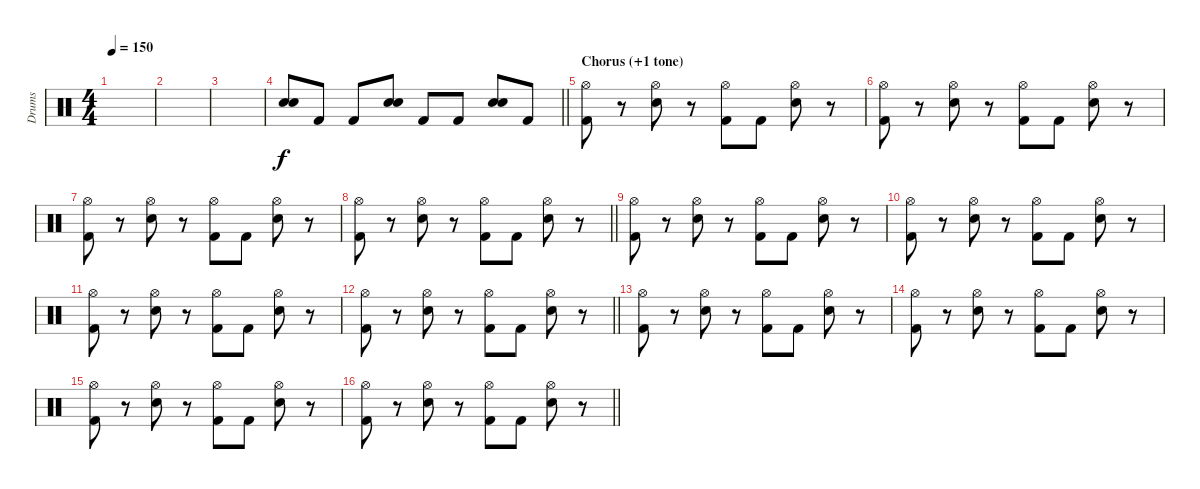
\track ("Drums" "Drums") {instrument percussion}
\staff {score}
\articulation defaults
\ts (4 4)
\tempo 150
\clef neutral
\ks c
|
|
|
\barLineRight lightlight
("Electric Snare (hit)" "Snare (hit) 2").8{dy f} "Kick (hit) 2".8 "Kick (hit) 2".8 ("Electric Snare (hit)" "Snare (hit) 2").8 "Kick (hit) 2".8 "Kick (hit) 2".8 ("Electric Snare (hit)" "Snare (hit) 2").8 "Kick (hit) 2".8 |
\section ("" "Chorus (+1 tone)")
("Hi-Hat (open)" "Kick (hit) 2").8 r.8 ("Hi-Hat (open)" "Snare (hit) 2").8 r.8 ("Hi-Hat (open)" "Kick (hit) 2").8 "Kick (hit) 2".8 ("Hi-Hat (open)" "Snare (hit) 2").8 r.8 |
("Hi-Hat (open)" "Kick (hit) 2").8 r.8 ("Hi-Hat (open)" "Snare (hit) 2").8 r.8 ("Hi-Hat (open)" "Kick (hit) 2").8 "Kick (hit) 2".8 ("Hi-Hat (open)" "Snare (hit) 2").8 r.8 |
("Hi-Hat (open)" "Kick (hit) 2").8 r.8 ("Hi-Hat (open)" "Snare (hit) 2").8 r.8 ("Hi-Hat (open)" "Kick (hit) 2").8 "Kick (hit) 2".8 ("Hi-Hat (open)" "Snare (hit) 2").8 r.8 |
\barLineRight lightlight
("Hi-Hat (open)" "Kick (hit) 2").8 r.8 ("Hi-Hat (open)" "Snare (hit) 2").8 r.8 ("Hi-Hat (open)" "Kick (hit) 2").8 "Kick (hit) 2".8 ("Hi-Hat (open)" "Snare (hit) 2").8 r.8 |
("Hi-Hat (open)" "Kick (hit) 2").8 r.8 ("Hi-Hat (open)" "Snare (hit) 2").8 r.8 ("Hi-Hat (open)" "Kick (hit) 2").8 "Kick (hit) 2".8 ("Hi-Hat (open)" "Snare (hit) 2").8 r.8 |
("Hi-Hat (open)" "Kick (hit) 2").8 r.8 ("Hi-Hat (open)" "Snare (hit) 2").8 r.8 ("Hi-Hat (open)" "Kick (hit) 2").8 "Kick (hit) 2".8 ("Hi-Hat (open)" "Snare (hit) 2").8 r.8 |
("Hi-Hat (open)" "Kick (hit) 2").8 r.8 ("Hi-Hat (open)" "Snare (hit) 2").8 r.8 ("Hi-Hat (open)" "Kick (hit) 2").8 "Kick (hit) 2".8 ("Hi-Hat (open)" "Snare (hit) 2").8 r.8 |
\barLineRight lightlight
("Hi-Hat (open)" "Kick (hit) 2").8 r.8 ("Hi-Hat (open)" "Snare (hit) 2").8 r.8 ("Hi-Hat (open)" "Kick (hit) 2").8 "Kick (hit) 2".8 ("Hi-Hat (open)" "Snare (hit) 2").8 r.8 |
("Hi-Hat (open)" "Kick (hit) 2").8 r.8 ("Hi-Hat (open)" "Snare (hit) 2").8 r.8 ("Hi-Hat (open)" "Kick (hit) 2").8 "Kick (hit) 2".8 ("Hi-Hat (open)" "Snare (hit) 2").8 r.8 |
("Hi-Hat (open)" "Kick (hit) 2").8 r.8 ("Hi-Hat (open)" "Snare (hit) 2").8 r.8 ("Hi-Hat (open)" "Kick (hit) 2").8 "Kick (hit) 2".8 ("Hi-Hat (open)" "Snare (hit) 2").8 r.8 |
("Hi-Hat (open)" "Kick (hit) 2").8 r.8 ("Hi-Hat (open)" "Snare (hit) 2").8 r.8 ("Hi-Hat (open)" "Kick (hit) 2").8 "Kick (hit) 2".8 ("Hi-Hat (open)" "Snare (hit) 2").8 r.8 |
\barLineRight lightlight
("Hi-Hat (open)" "Kick (hit) 2").8 r.8 ("Hi-Hat (open)" "Snare (hit) 2").8 r.8 ("Hi-Hat (open)" "Kick (hit) 2").8 "Kick (hit) 2".8 ("Hi-Hat (open)" "Snare (hit) 2").8 r.8
